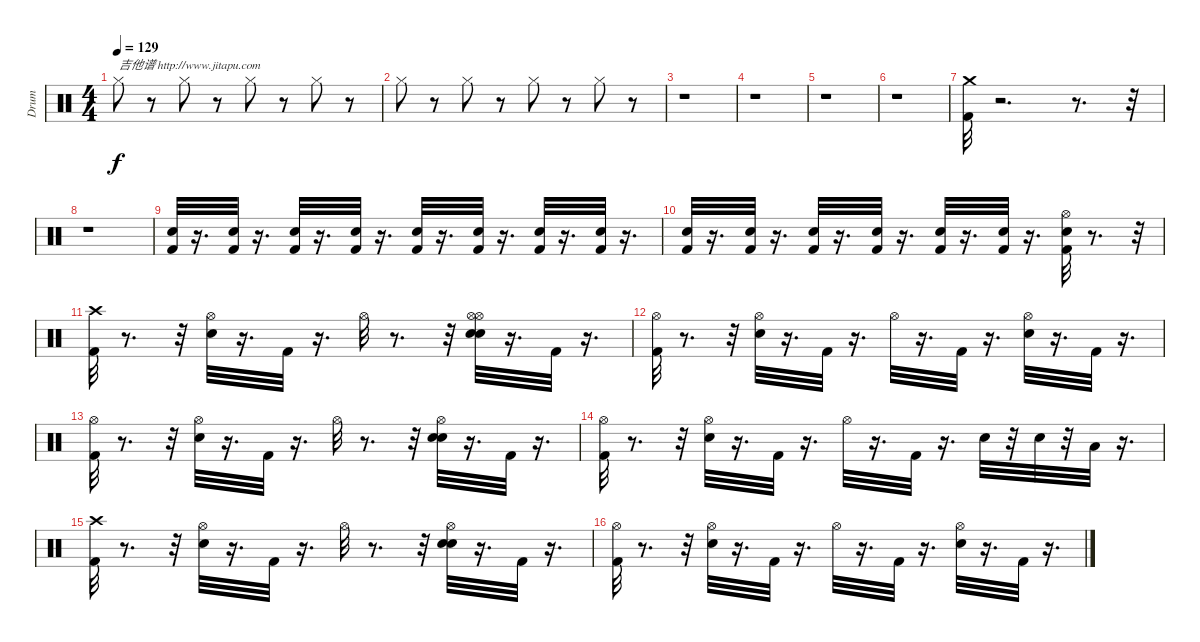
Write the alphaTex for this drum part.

\track ("Drum" "Drum") {instrument percussion}
\staff {score}
\articulation defaults
\ts (4 4)
\tempo 129
\clef neutral
\ks c "Hi-Hat (closed)".8{txt "吉他谱 http://www.jitapu.com" dy f}
r.8 "Hi-Hat (closed)".8 r.8 "Hi-Hat (closed)".8 r.8 "Hi-Hat (closed)".8 r.8 |
"Hi-Hat (closed)".8 r.8 "Hi-Hat (closed)".8 r.8 "Hi-Hat (closed)".8 r.8 "Hi-Hat (closed)".8 r.8 |
r.1 |
r.1 |
r.1 |
r.1 |
("Kick (hit) 2" "Crash medium (hit)").32 r.2{d} r.8{d} r.32 |
r.1 |
("Kick (hit) 2" "Snare (hit) 2").32 r.16{d} ("Kick (hit) 2" "Snare (hit) 2").32 r.16{d} ("Kick (hit) 2" "Snare (hit) 2").32 r.16{d} ("Snare (hit) 2" "Kick (hit) 2").32 r.16{d} ("Kick (hit) 2" "Snare (hit) 2").32 r.16{d} ("Kick (hit) 2" "Snare (hit) 2").32 r.16{d} ("Kick (hit) 2" "Snare (hit) 2").32 r.16{d} ("Kick (hit) 2" "Snare (hit) 2").32 r.16{d} |
("Kick (hit) 2" "Snare (hit) 2").32 r.16{d} ("Kick (hit) 2" "Snare (hit) 2").32 r.16{d} ("Kick (hit) 2" "Snare (hit) 2").32 r.16{d} ("Snare (hit) 2" "Kick (hit) 2").32 r.16{d} ("Kick (hit) 2" "Snare (hit) 2").32 r.16{d} ("Kick (hit) 2" "Snare (hit) 2").32 r.16{d} ("Kick (hit) 2" "Snare (hit) 2" "Hi-Hat (open)").32 r.8{d} r.32 |
("Kick (hit) 2" "Crash high (hit)").32 r.8{d} r.32 ("Snare (hit) 2" "Hi-Hat (open)").32 r.16{d} "Kick (hit) 2".32 r.16{d} "Hi-Hat (open)".32 r.8{d} r.32 ("Snare (hit) 2" "Hi-Hat (open)" "Snare (hit) 2" "Hi-Hat (open)").32 r.16{d} "Kick (hit) 2".32 r.16{d} |
("Kick (hit) 2" "Hi-Hat (open)").32 r.8{d} r.32 ("Snare (hit) 2" "Hi-Hat (open)").32 r.16{d} "Kick (hit) 2".32 r.16{d} "Hi-Hat (open)".32 r.16{d} "Kick (hit) 2".32 r.16{d} ("Snare (hit) 2" "Hi-Hat (open)").32 r.16{d} "Kick (hit) 2".32 r.16{d} |
("Hi-Hat (open)" "Kick (hit) 2").32 r.8{d} r.32 ("Snare (hit) 2" "Hi-Hat (open)").32 r.16{d} "Kick (hit) 2".32 r.16{d} "Hi-Hat (open)".32 r.8{d} r.32 ("Snare (hit) 2" "Hi-Hat (open)" "Snare (hit) 2").32 r.16{d} "Kick (hit) 2".32 r.16{d} |
("Kick (hit) 2" "Hi-Hat (open)").32 r.8{d} r.32 ("Snare (hit) 2" "Hi-Hat (open)").32 r.16{d} "Kick (hit) 2".32 r.16{d} "Hi-Hat (open)".32 r.16{d} "Kick (hit) 2".32 r.16{d} "Snare (hit) 2".32 r.32 "Snare (hit) 2".32 r.32 "Low Floor Tom (hit)".32 r.16{d} |
("Kick (hit) 2" "Crash high (hit)").32 r.8{d} r.32 ("Snare (hit) 2" "Hi-Hat (open)").32 r.16{d} "Kick (hit) 2".32 r.16{d} "Hi-Hat (open)".32 r.8{d} r.32 ("Snare (hit) 2" "Hi-Hat (open)" "Snare (hit) 2").32 r.16{d} "Kick (hit) 2".32 r.16{d} |
("Kick (hit) 2" "Hi-Hat (open)").32 r.8{d} r.32 ("Snare (hit) 2" "Hi-Hat (open)").32 r.16{d} "Kick (hit) 2".32 r.16{d} "Hi-Hat (open)".32 r.16{d} "Kick (hit) 2".32 r.16{d} ("Hi-Hat (open)" "Snare (hit) 2").32 r.16{d} "Kick (hit) 2".32 r.16{d}
